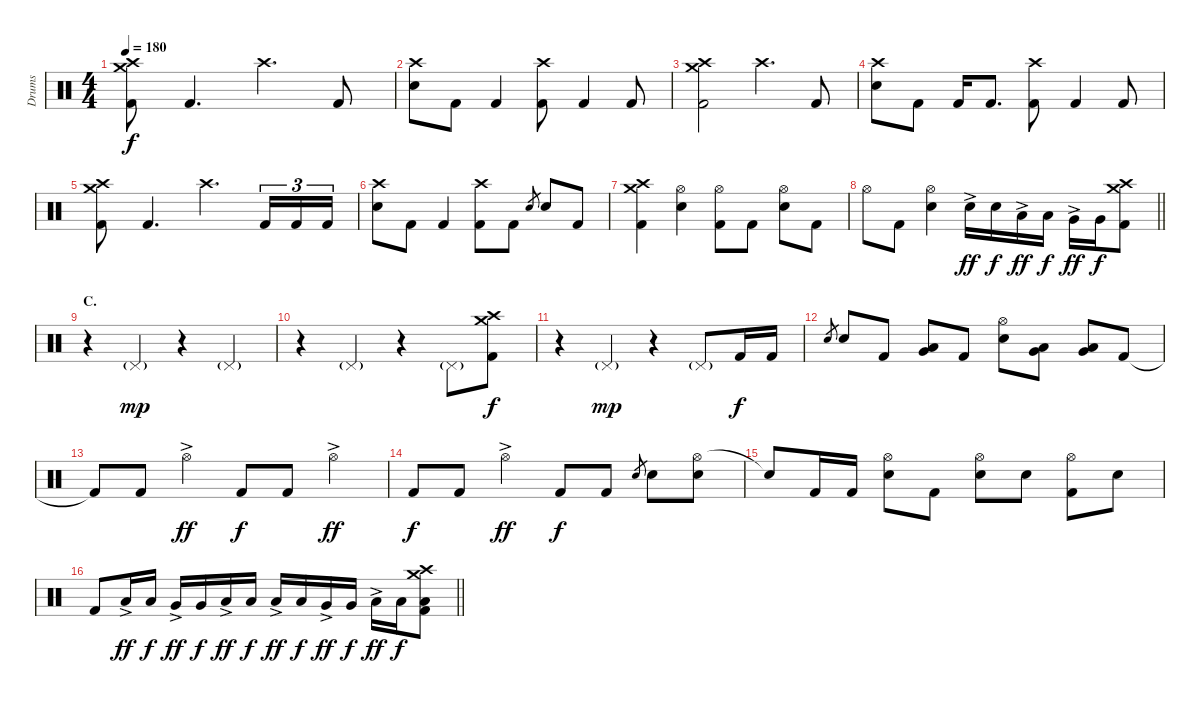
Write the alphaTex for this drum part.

\track ("Drums" "Drums") {instrument percussion}
\staff {score}
\articulation defaults
\ts (4 4)
\tempo 180
\clef neutral
\ks c
("Crash medium (hit)" "Crash high (hit)" "Kick (hit) 2").8{dy f} "Kick (hit) 2".4{d} "Crash high (hit)".4{d} "Kick (hit) 2".8 |
("Crash high (hit)" "Electric Snare (hit)").8 "Kick (hit) 2".8 "Kick (hit) 2".4 ("Crash high (hit)" "Kick (hit) 2").8 "Kick (hit) 2".4 "Kick (hit) 2".8 |
("Crash medium (hit)" "Crash high (hit)" "Kick (hit) 2").2 "Crash high (hit)".4{d} "Kick (hit) 2".8 |
("Crash high (hit)" "Electric Snare (hit)").8 "Kick (hit) 2".8 "Kick (hit) 2".16 "Kick (hit) 2".8{d} ("Crash high (hit)" "Kick (hit) 2").8 "Kick (hit) 2".4 "Kick (hit) 2".8 |
("Crash medium (hit)" "Crash high (hit)" "Kick (hit) 2").8 "Kick (hit) 2".4{d} "Crash high (hit)".4{d} "Kick (hit) 2".16{tu (3 2)} "Kick (hit) 2".16{tu (3 2)} "Kick (hit) 2".16{tu (3 2)} |
("Crash high (hit)" "Electric Snare (hit)").8 "Kick (hit) 2".8 "Kick (hit) 2".4 ("Crash high (hit)" "Kick (hit) 2").8 "Kick (hit) 2".8 "Electric Snare (hit)".8{gr} "Electric Snare (hit)".8 "Kick (hit) 2".8 |
("Crash medium (hit)" "Crash high (hit)" "Kick (hit) 2").4 ("Hi-Hat (open)" "Electric Snare (hit)").4 ("Hi-Hat (open)" "Kick (hit) 2").8 "Kick (hit) 2".8 ("Hi-Hat (open)" "Electric Snare (hit)").8 "Kick (hit) 2".8 |
\barLineRight lightlight "Hi-Hat (open)".8 "Kick (hit) 2".8
("Hi-Hat (open)" "Electric Snare (hit)").4 "Electric Snare (hit)"{ac}.16{dy ff} "Electric Snare (hit)".16{dy f} "Low Tom (hit)"{ac}.16{dy ff} "Low Tom (hit)".16{dy f} "Very Low Tom (hit)"{ac}.16{dy ff} "Very Low Tom (hit)".16{dy f} ("Crash medium (hit)" "Crash high (hit)" "Kick (hit) 2").8 |
\section ("" "C.")
r.4 "Pedal Hi-Hat (hit)"{g}.4{dy mp} r.4 "Pedal Hi-Hat (hit)"{g}.4 |
r.4 "Pedal Hi-Hat (hit)"{g}.4 r.4 "Pedal Hi-Hat (hit)"{g}.8 ("Crash medium (hit)" "Crash high (hit)" "Kick (hit) 2").8{dy f} |
r.4 "Pedal Hi-Hat (hit)"{g}.4{dy mp} r.4 "Pedal Hi-Hat (hit)"{g}.8 "Kick (hit) 2".16{dy f} "Kick (hit) 2".16 |
"Electric Snare (hit)".8{gr} "Electric Snare (hit)".8 "Kick (hit) 2".8 ("Very Low Tom (hit)" "Low Floor Tom (hit)").8{bu 120} "Kick (hit) 2".8 ("Hi-Hat (open)" "Electric Snare (hit)").8 ("Low Tom (hit)" "Very Low Tom (hit)").8{bu 120} ("Very Low Tom (hit)" "Low Floor Tom (hit)").8{bu 120} "Kick (hit) 2".8 |
"Kick (hit) 2"{t}.8 "Kick (hit) 2".8 "Hi-Hat (open)"{ac}.4{dy ff} "Kick (hit) 2".8{dy f} "Kick (hit) 2".8 "Hi-Hat (open)"{ac}.4{dy ff} |
"Kick (hit) 2".8{dy f} "Kick (hit) 2".8 "Hi-Hat (open)"{ac}.4{dy ff} "Kick (hit) 2".8{dy f} "Kick (hit) 2".8 "Electric Snare (hit)".8{gr} "Electric Snare (hit)".8 ("Hi-Hat (open)" "Electric Snare (hit)").8 |
"Snare (hit)"{t}.8 "Kick (hit) 2".16 "Kick (hit) 2".16 ("Hi-Hat (open)" "Electric Snare (hit)").8 "Kick (hit) 2".8 ("Hi-Hat (open)" "Electric Snare (hit)").8 "Electric Snare (hit)".8 ("Hi-Hat (open)" "Kick (hit) 2").8 "Electric Snare (hit)".8 |
\barLineRight lightlight "Kick (hit) 2".8 "Low Tom (hit)"{ac}.16{dy ff} "Low Tom (hit)".16{dy f} "Very Low Tom (hit)"{ac}.16{dy ff} "Very Low Tom (hit)".16{dy f} "Low Floor Tom (hit)"{ac}.16{dy ff} "Low Floor Tom (hit)".16{dy f} "Low Tom (hit)"{ac}.16{dy ff} "Low Tom (hit)".16{dy f} "Very Low Tom (hit)"{ac}.16{dy ff} "Very Low Tom (hit)".16{dy f} "Low Floor Tom (hit)"{ac}.16{dy ff} "Low Floor Tom (hit)".16{dy f}
("Crash medium (hit)" "Crash high (hit)" "Low Floor Tom (hit)" "Kick (hit) 2").8
